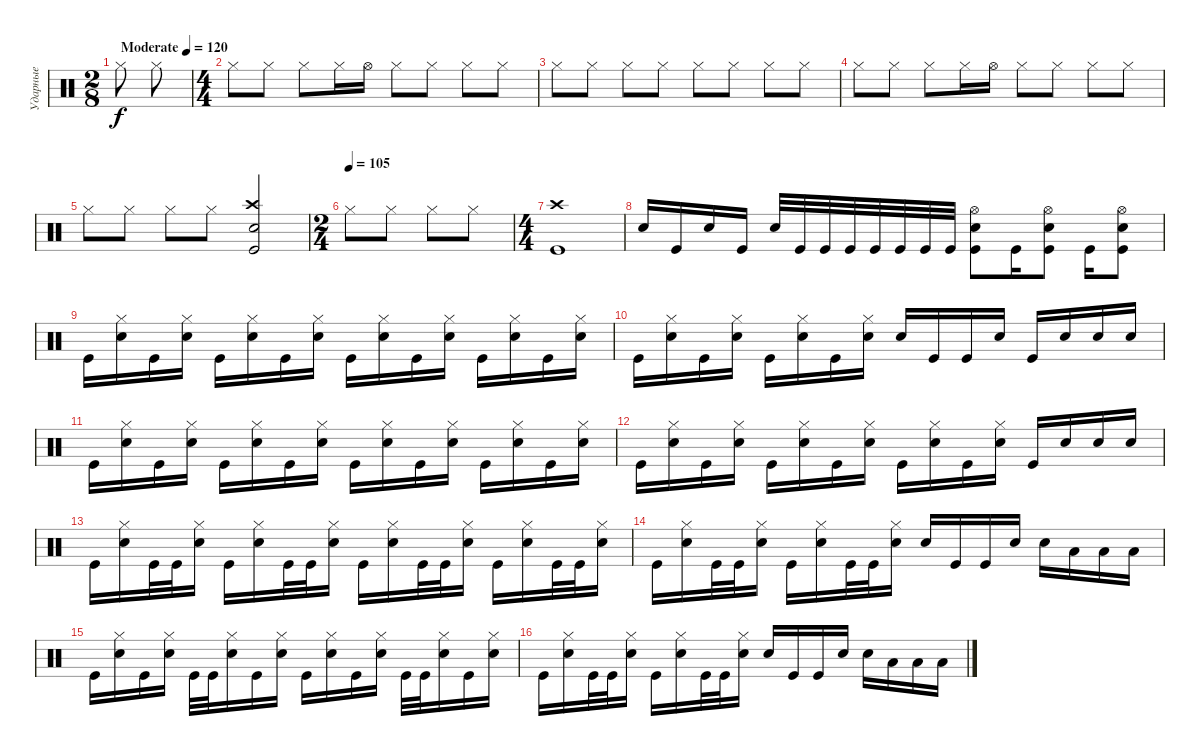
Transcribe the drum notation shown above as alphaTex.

\track ("Ударные" "Ударные") {instrument percussion}
\staff {score}
\articulation defaults
\ts (2 8)
\tempo (120 "Moderate")
\tempo 90
\tempo (120 "Moderate")
\clef neutral
\ks c "Hi-Hat (closed)".8{dy f} "Hi-Hat (closed)".8
|
\ts (4 4)
"Hi-Hat (closed)".8 "Hi-Hat (closed)".8 "Hi-Hat (closed)".8 "Hi-Hat (closed)".16 "Hi-Hat (open)".16 "Hi-Hat (closed)".8 "Hi-Hat (closed)".8 "Hi-Hat (closed)".8 "Hi-Hat (closed)".8 |
"Hi-Hat (closed)".8 "Hi-Hat (closed)".8 "Hi-Hat (closed)".8 "Hi-Hat (closed)".8 "Hi-Hat (closed)".8 "Hi-Hat (closed)".8 "Hi-Hat (closed)".8 "Hi-Hat (closed)".8 |
"Hi-Hat (closed)".8 "Hi-Hat (closed)".8 "Hi-Hat (closed)".8 "Hi-Hat (closed)".16 "Hi-Hat (open)".16 "Hi-Hat (closed)".8 "Hi-Hat (closed)".8 "Hi-Hat (closed)".8 "Hi-Hat (closed)".8 |
"Hi-Hat (closed)".8 "Hi-Hat (closed)".8 "Hi-Hat (closed)".8 "Hi-Hat (closed)".8 ("Kick (hit)" "Crash high (hit)" "Snare (hit) 2").2 |
\ts (2 4)
\tempo (105)
"Hi-Hat (closed)".8 "Hi-Hat (closed)".8 "Hi-Hat (closed)".8 "Hi-Hat (closed)".8 |
\ts (4 4)
("Crash high (hit)" "Kick (hit)").1 |
"Snare (hit) 2".16 "Kick (hit)".16 "Snare (hit) 2".16 "Kick (hit)".16 "Snare (hit) 2".32 "Kick (hit)".32 "Kick (hit)".32 "Kick (hit)".32 "Kick (hit)".32 "Kick (hit)".32 "Kick (hit)".32 "Kick (hit)".32 ("Kick (hit)" "Snare (hit) 2" "Hi-Hat (open)").8 "Kick (hit)".16 ("Kick (hit)" "Snare (hit) 2" "Hi-Hat (open)").8 "Kick (hit)".16 ("Kick (hit)" "Snare (hit) 2" "Hi-Hat (open)").8 |
"Kick (hit)".16 ("Hi-Hat (closed)" "Snare (hit) 2").16 "Kick (hit)".16 ("Hi-Hat (closed)" "Snare (hit) 2").16 "Kick (hit)".16 ("Hi-Hat (closed)" "Snare (hit) 2").16 "Kick (hit)".16 ("Hi-Hat (closed)" "Snare (hit) 2").16 "Kick (hit)".16 ("Hi-Hat (closed)" "Snare (hit) 2").16 "Kick (hit)".16 ("Hi-Hat (closed)" "Snare (hit) 2").16 "Kick (hit)".16 ("Hi-Hat (closed)" "Snare (hit) 2").16 "Kick (hit)".16 ("Hi-Hat (closed)" "Snare (hit) 2").16 |
"Kick (hit)".16 ("Hi-Hat (closed)" "Snare (hit) 2").16 "Kick (hit)".16 ("Hi-Hat (closed)" "Snare (hit) 2").16 "Kick (hit)".16 ("Hi-Hat (closed)" "Snare (hit) 2").16 "Kick (hit)".16 ("Hi-Hat (closed)" "Snare (hit) 2").16 "Snare (hit) 2".16 "Kick (hit)".16 "Kick (hit)".16 "Snare (hit) 2".16 "Kick (hit)".16 "Snare (hit) 2".16 "Snare (hit) 2".16 "Snare (hit) 2".16 |
"Kick (hit)".16 ("Hi-Hat (closed)" "Snare (hit) 2").16 "Kick (hit)".16 ("Hi-Hat (closed)" "Snare (hit) 2").16 "Kick (hit)".16 ("Hi-Hat (closed)" "Snare (hit) 2").16 "Kick (hit)".16 ("Hi-Hat (closed)" "Snare (hit) 2").16 "Kick (hit)".16 ("Hi-Hat (closed)" "Snare (hit) 2").16 "Kick (hit)".16 ("Hi-Hat (closed)" "Snare (hit) 2").16 "Kick (hit)".16 ("Hi-Hat (closed)" "Snare (hit) 2").16 "Kick (hit)".16 ("Hi-Hat (closed)" "Snare (hit) 2").16 |
"Kick (hit)".16 ("Hi-Hat (closed)" "Snare (hit) 2").16 "Kick (hit)".16 ("Hi-Hat (closed)" "Snare (hit) 2").16 "Kick (hit)".16 ("Hi-Hat (closed)" "Snare (hit) 2").16 "Kick (hit)".16 ("Hi-Hat (closed)" "Snare (hit) 2").16 "Kick (hit)".16 ("Hi-Hat (closed)" "Snare (hit) 2").16 "Kick (hit)".16 ("Hi-Hat (closed)" "Snare (hit) 2").16 "Kick (hit)".16 "Snare (hit) 2".16 "Snare (hit) 2".16 "Snare (hit) 2".16 |
"Kick (hit)".16 ("Hi-Hat (closed)" "Snare (hit) 2").16 "Kick (hit)".32 "Kick (hit)".32 ("Hi-Hat (closed)" "Snare (hit) 2").16 "Kick (hit)".16 ("Hi-Hat (closed)" "Snare (hit) 2").16 "Kick (hit)".32 "Kick (hit)".32 ("Hi-Hat (closed)" "Snare (hit) 2").16 "Kick (hit)".16 ("Hi-Hat (closed)" "Snare (hit) 2").16 "Kick (hit)".32 "Kick (hit)".32 ("Hi-Hat (closed)" "Snare (hit) 2").16 "Kick (hit)".16 ("Hi-Hat (closed)" "Snare (hit) 2").16 "Kick (hit)".32 "Kick (hit)".32 ("Hi-Hat (closed)" "Snare (hit) 2").16 |
"Kick (hit)".16 ("Hi-Hat (closed)" "Snare (hit) 2").16 "Kick (hit)".32 "Kick (hit)".32 ("Hi-Hat (closed)" "Snare (hit) 2").16 "Kick (hit)".16 ("Hi-Hat (closed)" "Snare (hit) 2").16 "Kick (hit)".32 "Kick (hit)".32 ("Hi-Hat (closed)" "Snare (hit) 2").16 "Snare (hit) 2".16 "Kick (hit)".16 "Kick (hit)".16 "Snare (hit) 2".16 "Snare (hit) 2".16 "Low Floor Tom (hit)".16 "Low Floor Tom (hit)".16 "Low Floor Tom (hit)".16 |
"Kick (hit)".16 ("Hi-Hat (closed)" "Snare (hit) 2").16 "Kick (hit)".16 ("Hi-Hat (closed)" "Snare (hit) 2").16 "Kick (hit)".32 "Kick (hit)".32 ("Hi-Hat (closed)" "Snare (hit) 2").16 "Kick (hit)".16 ("Hi-Hat (closed)" "Snare (hit) 2").16 "Kick (hit)".16 ("Hi-Hat (closed)" "Snare (hit) 2").16 "Kick (hit)".16 ("Hi-Hat (closed)" "Snare (hit) 2").16 "Kick (hit)".32 "Kick (hit)".32 ("Hi-Hat (closed)" "Snare (hit) 2").16 "Kick (hit)".16 ("Hi-Hat (closed)" "Snare (hit) 2").16 |
"Kick (hit)".16 ("Hi-Hat (closed)" "Snare (hit) 2").16 "Kick (hit)".32 "Kick (hit)".32 ("Hi-Hat (closed)" "Snare (hit) 2").16 "Kick (hit)".16 ("Hi-Hat (closed)" "Snare (hit) 2").16 "Kick (hit)".32 "Kick (hit)".32 ("Hi-Hat (closed)" "Snare (hit) 2").16 "Snare (hit) 2".16 "Kick (hit)".16 "Kick (hit)".16 "Snare (hit) 2".16 "Snare (hit) 2".16 "Low Floor Tom (hit)".16 "Low Floor Tom (hit)".16 "Low Floor Tom (hit)".16
